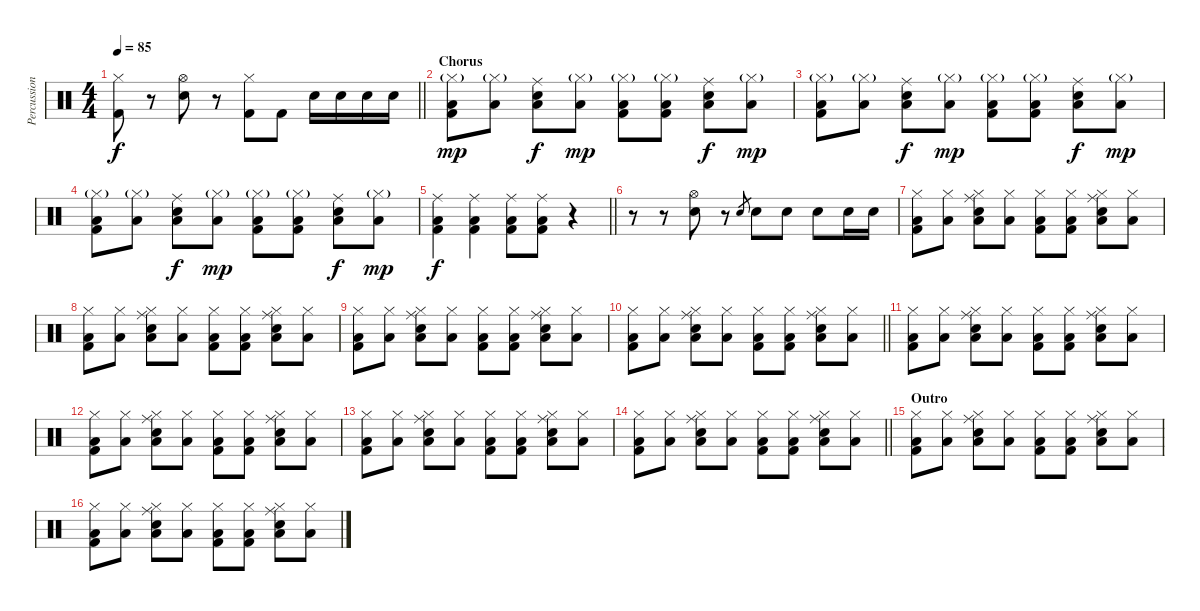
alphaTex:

\track ("Percussion" "Percussion") {instrument percussion}
\staff {score}
\articulation defaults
\ts (4 4)
\tempo 85
\clef neutral
\barLineRight lightlight
\ks c
("Hi-Hat (closed)" "Kick (hit) 2").8{dy f} r.8 ("Hi-Hat (open)" "Electric Snare (hit)").8 r.8 ("Hi-Hat (closed)" "Kick (hit) 2").8 "Kick (hit) 2".8 "Electric Snare (hit)".16 "Electric Snare (hit)".16 "Electric Snare (hit)".16 "Electric Snare (hit)".16 |
\section ("" "Chorus")
("Hi-Hat (closed)"{g} "Kick (hit) 2" "Low Floor Tom (hit)").8{dy mp} ("Hi-Hat (closed)"{g} "Low Floor Tom (hit)").8 ("Ride (middle)" "Electric Snare (hit)" "Low Floor Tom (hit)").8{dy f} ("Hi-Hat (closed)"{g} "Low Floor Tom (hit)").8{dy mp} ("Hi-Hat (closed)"{g} "Kick (hit) 2" "Low Floor Tom (hit)").8 ("Hi-Hat (closed)"{g} "Kick (hit) 2" "Low Floor Tom (hit)").8 ("Ride (middle)" "Electric Snare (hit)" "Low Floor Tom (hit)").8{dy f} ("Hi-Hat (closed)"{g} "Low Floor Tom (hit)").8{dy mp} |
("Hi-Hat (closed)"{g} "Kick (hit) 2" "Low Floor Tom (hit)").8 ("Hi-Hat (closed)"{g} "Low Floor Tom (hit)").8 ("Ride (middle)" "Electric Snare (hit)" "Low Floor Tom (hit)").8{dy f} ("Hi-Hat (closed)"{g} "Low Floor Tom (hit)").8{dy mp} ("Hi-Hat (closed)"{g} "Kick (hit) 2" "Low Floor Tom (hit)").8 ("Hi-Hat (closed)"{g} "Kick (hit) 2" "Low Floor Tom (hit)").8 ("Ride (middle)" "Electric Snare (hit)" "Low Floor Tom (hit)").8{dy f} ("Hi-Hat (closed)"{g} "Low Floor Tom (hit)").8{dy mp} |
("Hi-Hat (closed)"{g} "Kick (hit) 2" "Low Floor Tom (hit)").8 ("Hi-Hat (closed)"{g} "Low Floor Tom (hit)").8 ("Ride (middle)" "Electric Snare (hit)" "Low Floor Tom (hit)").8{dy f} ("Hi-Hat (closed)"{g} "Low Floor Tom (hit)").8{dy mp} ("Hi-Hat (closed)"{g} "Kick (hit) 2" "Low Floor Tom (hit)").8 ("Hi-Hat (closed)"{g} "Kick (hit) 2" "Low Floor Tom (hit)").8 ("Ride (middle)" "Electric Snare (hit)" "Low Floor Tom (hit)").8{dy f} ("Hi-Hat (closed)"{g} "Low Floor Tom (hit)").8{dy mp} |
\barLineRight lightlight
("Ride (middle)" "Kick (hit) 2" "Low Floor Tom (hit)").4{dy f} ("Ride (middle)" "Kick (hit) 2" "Low Floor Tom (hit)").4 ("Ride (middle)" "Kick (hit) 2" "Low Floor Tom (hit)").8 ("Ride (middle)" "Kick (hit) 2" "Low Floor Tom (hit)").8 r.4 |
r.8 r.8 ("Hi-Hat (open)" "Electric Snare (hit)").8 r.8 "Electric Snare (hit)".8{gr} "Electric Snare (hit)".8 "Electric Snare (hit)".8 "Electric Snare (hit)".8 "Electric Snare (hit)".16 "Electric Snare (hit)".16 |
("Hi-Hat (closed)" "Kick (hit) 2" "Low Floor Tom (hit)").8 ("Hi-Hat (closed)" "Low Floor Tom (hit)").8 ("Hi-Hat (closed)" "Ride (middle)" "Electric Snare (hit)" "Low Floor Tom (hit)").8 ("Hi-Hat (closed)" "Low Floor Tom (hit)").8 ("Hi-Hat (closed)" "Kick (hit) 2" "Low Floor Tom (hit)").8 ("Hi-Hat (closed)" "Kick (hit) 2" "Low Floor Tom (hit)").8 ("Hi-Hat (closed)" "Ride (middle)" "Electric Snare (hit)" "Low Floor Tom (hit)").8 ("Hi-Hat (closed)" "Low Floor Tom (hit)").8 |
("Hi-Hat (closed)" "Kick (hit) 2" "Low Floor Tom (hit)").8 ("Hi-Hat (closed)" "Low Floor Tom (hit)").8 ("Hi-Hat (closed)" "Ride (middle)" "Electric Snare (hit)" "Low Floor Tom (hit)").8 ("Hi-Hat (closed)" "Low Floor Tom (hit)").8 ("Hi-Hat (closed)" "Kick (hit) 2" "Low Floor Tom (hit)").8 ("Hi-Hat (closed)" "Kick (hit) 2" "Low Floor Tom (hit)").8 ("Hi-Hat (closed)" "Ride (middle)" "Electric Snare (hit)" "Low Floor Tom (hit)").8 ("Hi-Hat (closed)" "Low Floor Tom (hit)").8 |
("Hi-Hat (closed)" "Kick (hit) 2" "Low Floor Tom (hit)").8 ("Hi-Hat (closed)" "Low Floor Tom (hit)").8 ("Hi-Hat (closed)" "Ride (middle)" "Electric Snare (hit)" "Low Floor Tom (hit)").8 ("Hi-Hat (closed)" "Low Floor Tom (hit)").8 ("Hi-Hat (closed)" "Kick (hit) 2" "Low Floor Tom (hit)").8 ("Hi-Hat (closed)" "Kick (hit) 2" "Low Floor Tom (hit)").8 ("Hi-Hat (closed)" "Ride (middle)" "Electric Snare (hit)" "Low Floor Tom (hit)").8 ("Hi-Hat (closed)" "Low Floor Tom (hit)").8 |
\barLineRight lightlight
("Hi-Hat (closed)" "Kick (hit) 2" "Low Floor Tom (hit)").8 ("Hi-Hat (closed)" "Low Floor Tom (hit)").8 ("Hi-Hat (closed)" "Ride (middle)" "Electric Snare (hit)" "Low Floor Tom (hit)").8 ("Hi-Hat (closed)" "Low Floor Tom (hit)").8 ("Hi-Hat (closed)" "Kick (hit) 2" "Low Floor Tom (hit)").8 ("Hi-Hat (closed)" "Kick (hit) 2" "Low Floor Tom (hit)").8 ("Hi-Hat (closed)" "Ride (middle)" "Electric Snare (hit)" "Low Floor Tom (hit)").8 ("Hi-Hat (closed)" "Low Floor Tom (hit)").8 |
("Hi-Hat (closed)" "Kick (hit) 2" "Low Floor Tom (hit)").8 ("Hi-Hat (closed)" "Low Floor Tom (hit)").8 ("Hi-Hat (closed)" "Ride (middle)" "Electric Snare (hit)" "Low Floor Tom (hit)").8 ("Hi-Hat (closed)" "Low Floor Tom (hit)").8 ("Hi-Hat (closed)" "Kick (hit) 2" "Low Floor Tom (hit)").8 ("Hi-Hat (closed)" "Kick (hit) 2" "Low Floor Tom (hit)").8 ("Hi-Hat (closed)" "Ride (middle)" "Electric Snare (hit)" "Low Floor Tom (hit)").8 ("Hi-Hat (closed)" "Low Floor Tom (hit)").8 |
("Hi-Hat (closed)" "Kick (hit) 2" "Low Floor Tom (hit)").8 ("Hi-Hat (closed)" "Low Floor Tom (hit)").8 ("Hi-Hat (closed)" "Ride (middle)" "Electric Snare (hit)" "Low Floor Tom (hit)").8 ("Hi-Hat (closed)" "Low Floor Tom (hit)").8 ("Hi-Hat (closed)" "Kick (hit) 2" "Low Floor Tom (hit)").8 ("Hi-Hat (closed)" "Kick (hit) 2" "Low Floor Tom (hit)").8 ("Hi-Hat (closed)" "Ride (middle)" "Electric Snare (hit)" "Low Floor Tom (hit)").8 ("Hi-Hat (closed)" "Low Floor Tom (hit)").8 |
("Hi-Hat (closed)" "Kick (hit) 2" "Low Floor Tom (hit)").8 ("Hi-Hat (closed)" "Low Floor Tom (hit)").8 ("Hi-Hat (closed)" "Ride (middle)" "Electric Snare (hit)" "Low Floor Tom (hit)").8 ("Hi-Hat (closed)" "Low Floor Tom (hit)").8 ("Hi-Hat (closed)" "Kick (hit) 2" "Low Floor Tom (hit)").8 ("Hi-Hat (closed)" "Kick (hit) 2" "Low Floor Tom (hit)").8 ("Hi-Hat (closed)" "Ride (middle)" "Electric Snare (hit)" "Low Floor Tom (hit)").8 ("Hi-Hat (closed)" "Low Floor Tom (hit)").8 |
\barLineRight lightlight
("Hi-Hat (closed)" "Kick (hit) 2" "Low Floor Tom (hit)").8 ("Hi-Hat (closed)" "Low Floor Tom (hit)").8 ("Hi-Hat (closed)" "Ride (middle)" "Electric Snare (hit)" "Low Floor Tom (hit)").8 ("Hi-Hat (closed)" "Low Floor Tom (hit)").8 ("Hi-Hat (closed)" "Kick (hit) 2" "Low Floor Tom (hit)").8 ("Hi-Hat (closed)" "Kick (hit) 2" "Low Floor Tom (hit)").8 ("Hi-Hat (closed)" "Ride (middle)" "Electric Snare (hit)" "Low Floor Tom (hit)").8 ("Hi-Hat (closed)" "Low Floor Tom (hit)").8 |
\section ("" "Outro")
("Hi-Hat (closed)" "Kick (hit) 2" "Low Floor Tom (hit)").8 ("Hi-Hat (closed)" "Low Floor Tom (hit)").8 ("Hi-Hat (closed)" "Ride (middle)" "Electric Snare (hit)" "Low Floor Tom (hit)").8 ("Hi-Hat (closed)" "Low Floor Tom (hit)").8 ("Hi-Hat (closed)" "Kick (hit) 2" "Low Floor Tom (hit)").8 ("Hi-Hat (closed)" "Kick (hit) 2" "Low Floor Tom (hit)").8 ("Hi-Hat (closed)" "Ride (middle)" "Electric Snare (hit)" "Low Floor Tom (hit)").8 ("Hi-Hat (closed)" "Low Floor Tom (hit)").8 |
("Hi-Hat (closed)" "Kick (hit) 2" "Low Floor Tom (hit)").8 ("Hi-Hat (closed)" "Low Floor Tom (hit)").8 ("Hi-Hat (closed)" "Ride (middle)" "Electric Snare (hit)" "Low Floor Tom (hit)").8 ("Hi-Hat (closed)" "Low Floor Tom (hit)").8 ("Hi-Hat (closed)" "Kick (hit) 2" "Low Floor Tom (hit)").8 ("Hi-Hat (closed)" "Kick (hit) 2" "Low Floor Tom (hit)").8 ("Hi-Hat (closed)" "Ride (middle)" "Electric Snare (hit)" "Low Floor Tom (hit)").8 ("Hi-Hat (closed)" "Low Floor Tom (hit)").8
